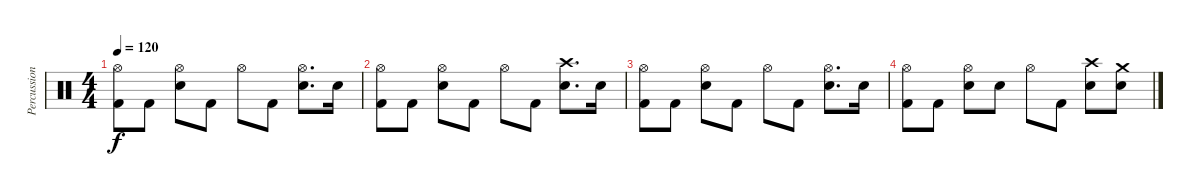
\track ("Percussion" "Percussion") {instrument percussion}
\staff {score}
\articulation defaults
\ts (4 4)
\tempo 120
\clef neutral
\ks c
("Hi-Hat (open)" "Kick (hit) 2").8{dy f} "Kick (hit) 2".8 ("Hi-Hat (open)" "Electric Snare (hit)").8 "Kick (hit) 2".8 "Hi-Hat (open)".8 "Kick (hit) 2".8 ("Hi-Hat (open)" "Electric Snare (hit)").8{d} "Electric Snare (hit)".16 |
("Hi-Hat (open)" "Kick (hit) 2").8 "Kick (hit) 2".8 ("Hi-Hat (open)" "Electric Snare (hit)").8 "Kick (hit) 2".8 "Hi-Hat (open)".8 "Kick (hit) 2".8 ("Crash high (hit)" "Electric Snare (hit)").8{d} "Electric Snare (hit)".16 |
("Hi-Hat (open)" "Kick (hit) 2").8 "Kick (hit) 2".8 ("Hi-Hat (open)" "Electric Snare (hit)").8 "Kick (hit) 2".8 "Hi-Hat (open)".8 "Kick (hit) 2".8 ("Hi-Hat (open)" "Electric Snare (hit)").8{d} "Electric Snare (hit)".16 |
("Hi-Hat (open)" "Kick (hit) 2").8 "Kick (hit) 2".8 ("Hi-Hat (open)" "Electric Snare (hit)").8 "Electric Snare (hit)".8 "Hi-Hat (open)".8 "Kick (hit) 2".8 ("Crash high (hit)" "Electric Snare (hit)").8 ("Crash medium (hit)" "Electric Snare (hit)").8
